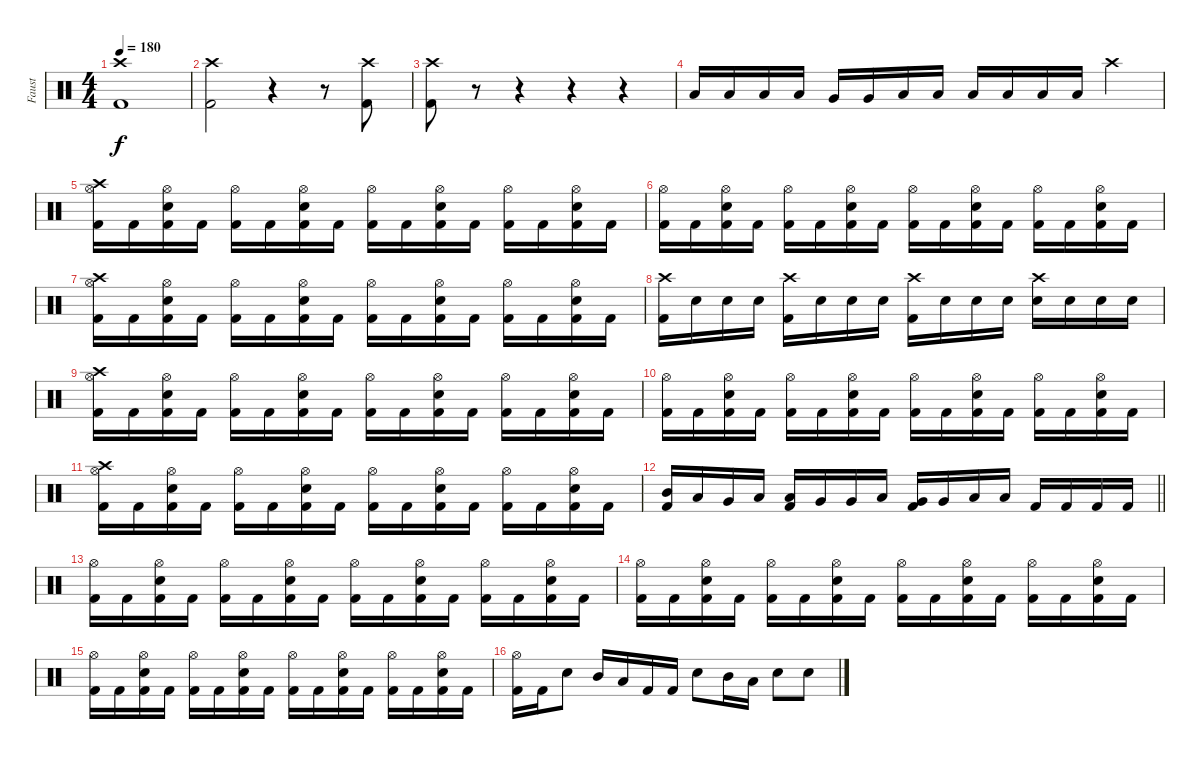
\track ("Faust" "Faust") {instrument percussion}
\staff {score}
\articulation defaults
\ts (4 4)
\tempo 180
\clef neutral
\ks c
("Crash high (hit)" "Kick (hit) 2").1{dy f} |
("Crash high (hit)" "Kick (hit) 2").2 r.4 r.8 ("Crash high (hit)" "Kick (hit) 2").8 |
("Crash high (hit)" "Kick (hit) 2").8 r.8 r.4 r.4 r.4 |
"Low Tom (hit)".16 "Low Tom (hit)".16 "Low Floor Tom (hit)".16 "Low Floor Tom (hit)".16 "Very Low Tom (hit)".16 "Very Low Tom (hit)".16 "Low Floor Tom (hit)".16 "Low Floor Tom (hit)".16 "Low Floor Tom (hit)".16 "Low Floor Tom (hit)".16 "Low Floor Tom (hit)".16 "Low Floor Tom (hit)".16 "Crash high (hit)".4 |
("Crash high (hit)" "Hi-Hat (open)" "Kick (hit) 2").16 "Kick (hit) 2".16 ("Hi-Hat (open)" "Snare (hit) 2" "Kick (hit) 2").16 "Kick (hit) 2".16 ("Hi-Hat (open)" "Kick (hit) 2").16 "Kick (hit) 2".16 ("Hi-Hat (open)" "Snare (hit) 2" "Kick (hit) 2").16 "Kick (hit) 2".16 ("Hi-Hat (open)" "Kick (hit) 2").16 "Kick (hit) 2".16 ("Hi-Hat (open)" "Snare (hit) 2" "Kick (hit) 2").16 "Kick (hit) 2".16 ("Hi-Hat (open)" "Kick (hit) 2").16 "Kick (hit) 2".16 ("Hi-Hat (open)" "Snare (hit) 2" "Kick (hit) 2").16 "Kick (hit) 2".16 |
("Hi-Hat (open)" "Kick (hit) 2").16 "Kick (hit) 2".16 ("Hi-Hat (open)" "Snare (hit) 2" "Kick (hit) 2").16 "Kick (hit) 2".16 ("Hi-Hat (open)" "Kick (hit) 2").16 "Kick (hit) 2".16 ("Hi-Hat (open)" "Snare (hit) 2" "Kick (hit) 2").16 "Kick (hit) 2".16 ("Hi-Hat (open)" "Kick (hit) 2").16 "Kick (hit) 2".16 ("Hi-Hat (open)" "Snare (hit) 2" "Kick (hit) 2").16 "Kick (hit) 2".16 ("Hi-Hat (open)" "Kick (hit) 2").16 "Kick (hit) 2".16 ("Hi-Hat (open)" "Snare (hit) 2" "Kick (hit) 2").16 "Kick (hit) 2".16 |
("Crash high (hit)" "Hi-Hat (open)" "Kick (hit) 2").16 "Kick (hit) 2".16 ("Hi-Hat (open)" "Snare (hit) 2" "Kick (hit) 2").16 "Kick (hit) 2".16 ("Hi-Hat (open)" "Kick (hit) 2").16 "Kick (hit) 2".16 ("Hi-Hat (open)" "Snare (hit) 2" "Kick (hit) 2").16 "Kick (hit) 2".16 ("Hi-Hat (open)" "Kick (hit) 2").16 "Kick (hit) 2".16 ("Hi-Hat (open)" "Snare (hit) 2" "Kick (hit) 2").16 "Kick (hit) 2".16 ("Hi-Hat (open)" "Kick (hit) 2").16 "Kick (hit) 2".16 ("Hi-Hat (open)" "Snare (hit) 2" "Kick (hit) 2").16 "Kick (hit) 2".16 |
("Crash high (hit)" "Kick (hit) 2").16 "Snare (hit) 2".16 "Snare (hit) 2".16 "Snare (hit) 2".16 ("Crash high (hit)" "Kick (hit) 2").16 "Snare (hit) 2".16 "Snare (hit) 2".16 "Snare (hit) 2".16 ("Crash high (hit)" "Kick (hit) 2").16 "Snare (hit) 2".16 "Snare (hit) 2".16 "Snare (hit) 2".16 ("Crash high (hit)" "Snare (hit) 2").16 "Snare (hit) 2".16 "Snare (hit) 2".16 "Snare (hit) 2".16 |
("Crash high (hit)" "Hi-Hat (open)" "Kick (hit) 2").16 "Kick (hit) 2".16 ("Hi-Hat (open)" "Snare (hit) 2" "Kick (hit) 2").16 "Kick (hit) 2".16 ("Hi-Hat (open)" "Kick (hit) 2").16 "Kick (hit) 2".16 ("Hi-Hat (open)" "Snare (hit) 2" "Kick (hit) 2").16 "Kick (hit) 2".16 ("Hi-Hat (open)" "Kick (hit) 2").16 "Kick (hit) 2".16 ("Hi-Hat (open)" "Snare (hit) 2" "Kick (hit) 2").16 "Kick (hit) 2".16 ("Hi-Hat (open)" "Kick (hit) 2").16 "Kick (hit) 2".16 ("Hi-Hat (open)" "Snare (hit) 2" "Kick (hit) 2").16 "Kick (hit) 2".16 |
("Hi-Hat (open)" "Kick (hit) 2").16 "Kick (hit) 2".16 ("Hi-Hat (open)" "Snare (hit) 2" "Kick (hit) 2").16 "Kick (hit) 2".16 ("Hi-Hat (open)" "Kick (hit) 2").16 "Kick (hit) 2".16 ("Hi-Hat (open)" "Snare (hit) 2" "Kick (hit) 2").16 "Kick (hit) 2".16 ("Hi-Hat (open)" "Kick (hit) 2").16 "Kick (hit) 2".16 ("Hi-Hat (open)" "Snare (hit) 2" "Kick (hit) 2").16 "Kick (hit) 2".16 ("Hi-Hat (open)" "Kick (hit) 2").16 "Kick (hit) 2".16 ("Hi-Hat (open)" "Snare (hit) 2" "Kick (hit) 2").16 "Kick (hit) 2".16 |
("Crash high (hit)" "Hi-Hat (open)" "Kick (hit) 2").16 "Kick (hit) 2".16 ("Hi-Hat (open)" "Snare (hit) 2" "Kick (hit) 2").16 "Kick (hit) 2".16 ("Hi-Hat (open)" "Kick (hit) 2").16 "Kick (hit) 2".16 ("Hi-Hat (open)" "Snare (hit) 2" "Kick (hit) 2").16 "Kick (hit) 2".16 ("Hi-Hat (open)" "Kick (hit) 2").16 "Kick (hit) 2".16 ("Hi-Hat (open)" "Snare (hit) 2" "Kick (hit) 2").16 "Kick (hit) 2".16 ("Hi-Hat (open)" "Kick (hit) 2").16 "Kick (hit) 2".16 ("Hi-Hat (open)" "Snare (hit) 2" "Kick (hit) 2").16 "Kick (hit) 2".16 |
\barLineRight lightlight
("Mid Tom (hit)" "Kick (hit) 2").16 "Low Tom (hit)".16 "Very Low Tom (hit)".16 "Low Floor Tom (hit)".16 ("Low Tom (hit)" "Kick (hit) 2").16 "Very Low Tom (hit)".16 "Very Low Tom (hit)".16 "Low Floor Tom (hit)".16 ("Very Low Tom (hit)" "Kick (hit) 2").16 "Very Low Tom (hit)".16 "Low Floor Tom (hit)".16 "Low Floor Tom (hit)".16 "Kick (hit) 2".16 "Kick (hit) 2".16 "Kick (hit) 2".16 "Kick (hit) 2".16 |
("Hi-Hat (open)" "Kick (hit) 2").16 "Kick (hit) 2".16 ("Hi-Hat (open)" "Snare (hit) 2" "Kick (hit) 2").16 "Kick (hit) 2".16 ("Hi-Hat (open)" "Kick (hit) 2").16 "Kick (hit) 2".16 ("Hi-Hat (open)" "Snare (hit) 2" "Kick (hit) 2").16 "Kick (hit) 2".16 ("Hi-Hat (open)" "Kick (hit) 2").16 "Kick (hit) 2".16 ("Hi-Hat (open)" "Snare (hit) 2" "Kick (hit) 2").16 "Kick (hit) 2".16 ("Hi-Hat (open)" "Kick (hit) 2").16 "Kick (hit) 2".16 ("Hi-Hat (open)" "Snare (hit) 2" "Kick (hit) 2").16 "Kick (hit) 2".16 |
("Hi-Hat (open)" "Kick (hit) 2").16 "Kick (hit) 2".16 ("Hi-Hat (open)" "Snare (hit) 2" "Kick (hit) 2").16 "Kick (hit) 2".16 ("Hi-Hat (open)" "Kick (hit) 2").16 "Kick (hit) 2".16 ("Hi-Hat (open)" "Snare (hit) 2" "Kick (hit) 2").16 "Kick (hit) 2".16 ("Hi-Hat (open)" "Kick (hit) 2").16 "Kick (hit) 2".16 ("Hi-Hat (open)" "Snare (hit) 2" "Kick (hit) 2").16 "Kick (hit) 2".16 ("Hi-Hat (open)" "Kick (hit) 2").16 "Kick (hit) 2".16 ("Hi-Hat (open)" "Snare (hit) 2" "Kick (hit) 2").16 "Kick (hit) 2".16 |
("Hi-Hat (open)" "Kick (hit) 2").16 "Kick (hit) 2".16 ("Hi-Hat (open)" "Snare (hit) 2" "Kick (hit) 2").16 "Kick (hit) 2".16 ("Hi-Hat (open)" "Kick (hit) 2").16 "Kick (hit) 2".16 ("Hi-Hat (open)" "Snare (hit) 2" "Kick (hit) 2").16 "Kick (hit) 2".16 ("Hi-Hat (open)" "Kick (hit) 2").16 "Kick (hit) 2".16 ("Hi-Hat (open)" "Snare (hit) 2" "Kick (hit) 2").16 "Kick (hit) 2".16 ("Hi-Hat (open)" "Kick (hit) 2").16 "Kick (hit) 2".16 ("Hi-Hat (open)" "Snare (hit) 2" "Kick (hit) 2").16 "Kick (hit) 2".16 |
("Hi-Hat (open)" "Kick (hit) 2").16 "Kick (hit) 2".16 "Snare (hit) 2".8 "Mid Tom (hit)".16 "Low Tom (hit)".16 "Kick (hit) 2".16 "Kick (hit) 2".16 "Snare (hit) 2".8 "Mid Tom (hit)".16 "Low Tom (hit)".16 "Snare (hit) 2".8 "Snare (hit) 2".8
